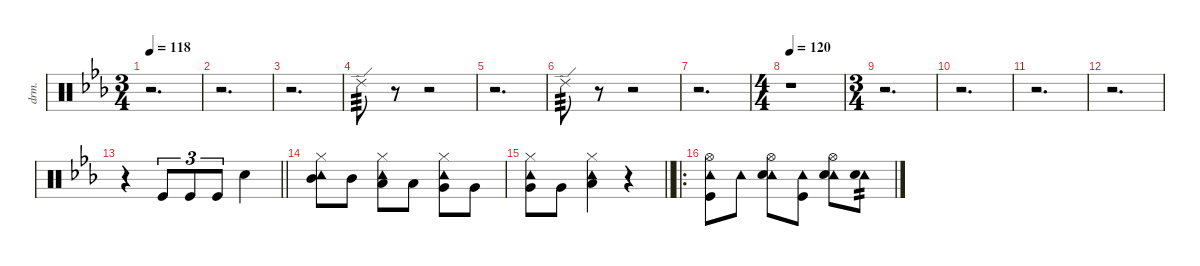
\defaultSystemsLayout 4
\hideDynamics
\bracketExtendMode nobrackets
\otherSystemsTrackNameOrientation horizontal
\track ("Drums" "drm.") {defaultSystemsLayout 4 instrument percussion}
\staff {score}
\articulation defaults
\ts (3 4)
\tempo 118
\clef neutral
\ks eb
r.2{d dy f beam Down} |
r.2{d beam Down} |
r.2{d beam Down} |
"Ride (edge) 2"{acc forcenatural}.8{tp 3 beam Down} r.8{beam Down} r.2{beam Down} |
r.2{d beam Down} |
"Ride (edge) 2"{acc forcenatural}.8{tp 3 beam Down} r.8{beam Down} r.2{beam Down} |
r.2{d beam Down} |
\ts (4 4)
\beaming (8 2 2 2 2)
\tempo 120
r.1{beam Down} |
\ts (3 4)
\beaming (8 2 2 2)
r.2{d beam Down} |
r.2{d beam Down} |
r.2{d beam Down} |
r.2{d beam Down} |
\barLineRight lightlight
r.4{beam Down} "Kick (hit)"{acc forcenatural}.8{tu (3 2) dy ff beam Up} "Kick (hit)"{acc forcenatural}.8{tu (3 2) beam Up} "Kick (hit)"{acc forcenatural}.8{tu (3 2) beam Up} "Snare (hit) 2"{acc forcenatural}.4{beam Down} |
("Tambourine (hit)"{acc forcenatural} "Hi-Hat (closed)"{acc forcenatural} "Mid Tom (hit)"{acc forcenatural}).8{beam Down} "Mid Tom (hit)"{acc forcenatural}.8{beam Down} ("Tambourine (hit)"{acc forcenatural} "Hi-Hat (closed)"{acc forcenatural} "Low Tom (hit)"{acc forcenatural}).8{beam Down} "Low Tom (hit)"{acc forcenatural}.8{beam Down} ("Tambourine (hit)"{acc forcenatural} "Hi-Hat (closed)"{acc forcenatural} "Very Low Tom (hit)"{acc forcenatural}).8{beam Down} "Very Low Tom (hit)"{acc forcenatural}.8{beam Down} |
\barLineRight lightlight
("Tambourine (hit)"{acc forcenatural} "Hi-Hat (closed)"{acc forcenatural} "Very Low Tom (hit)"{acc forcenatural}).8{beam Down} "Very Low Tom (hit)"{acc forcenatural}.8{beam Down} ("Tambourine (hit)"{acc forcenatural} "Hi-Hat (closed)"{acc forcenatural} "Low Floor Tom (hit)"{acc forcenatural}).4{beam Down} r.4{beam Down} |
\ro
("Tambourine (hit)"{acc forcenatural} "Hi-Hat (open)"{acc forcenatural} "Kick (hit)"{acc forcenatural}).8{dy pp beam Down} "Tambourine (hit)"{acc forcenatural}.8{beam Down} ("Tambourine (hit)"{acc forcenatural} "Hi-Hat (open)"{acc forcenatural} "Snare (hit) 2"{acc forcenatural}).8{beam Down} ("Tambourine (hit)"{acc forcenatural} "Kick (hit)"{acc forcenatural}).8{beam Down} ("Tambourine (hit)"{acc forcenatural} "Hi-Hat (open)"{acc forcenatural} "Snare (hit) 2"{acc forcenatural}).8{beam Down} ("Tambourine (hit)"{acc forcenatural} "Snare (hit) 2"{acc forcenatural}).8{tp 2 beam Down}
